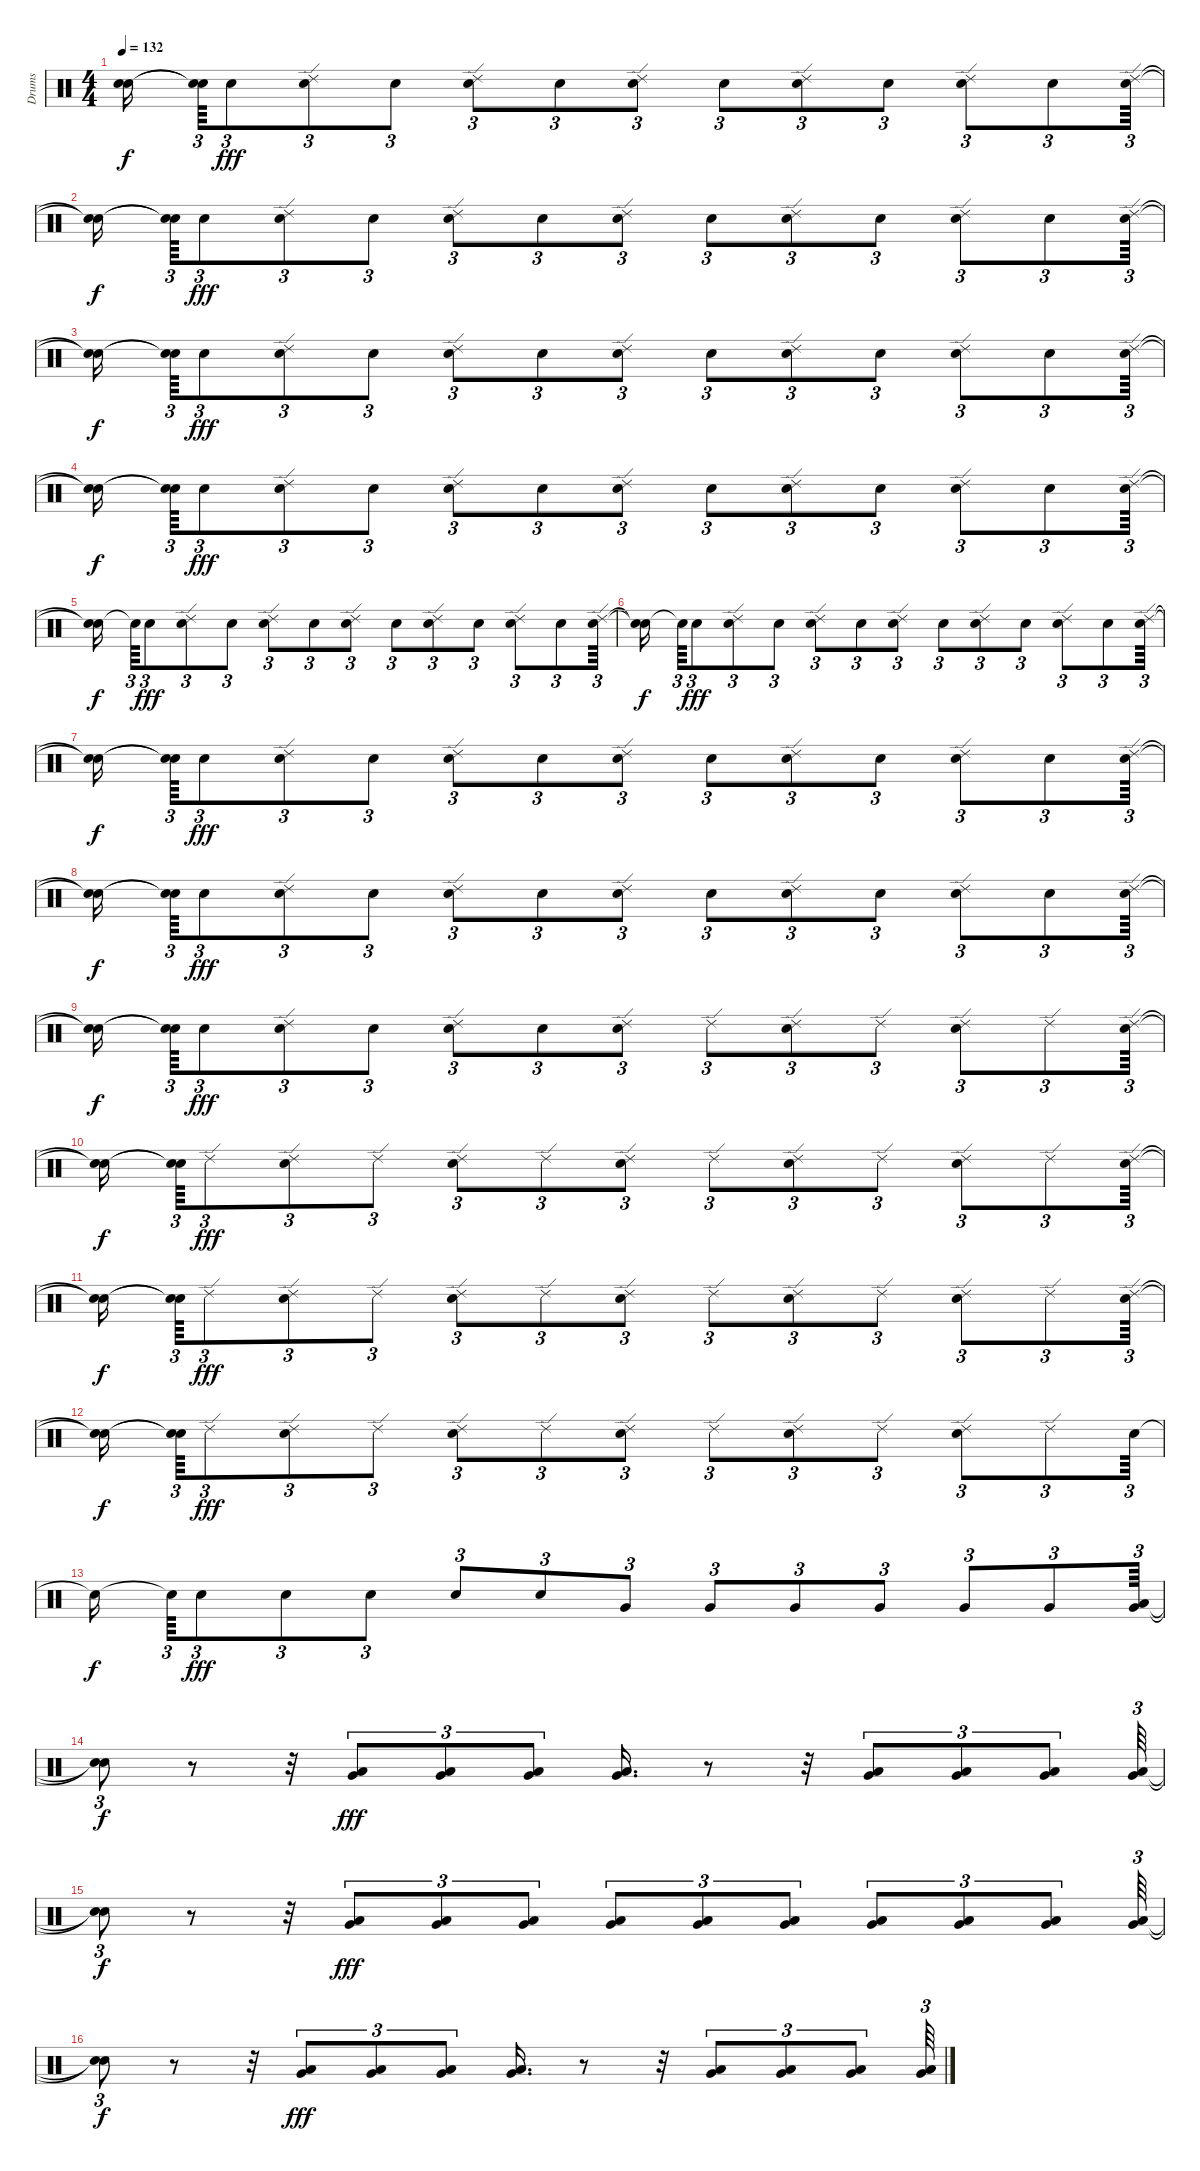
\track ("Drums" "Drums") {instrument percussion}
\staff {score}
\articulation defaults
\ts (4 4)
\tempo 132
\clef neutral
\ks c
("Snare (hit)"{t} "Snare (hit)"{t}).16{dy f} ("Snare (hit)"{t} "Snare (hit)"{t}).64{tu (3 2)} "Electric Snare (hit)".8{tu (3 2) dy fff} ("Ride (edge) 2" "Electric Snare (hit)").8{tu (3 2)} "Electric Snare (hit)".8{tu (3 2)} ("Ride (edge) 2" "Electric Snare (hit)").8{tu (3 2)} "Electric Snare (hit)".8{tu (3 2)} ("Ride (edge) 2" "Electric Snare (hit)").8{tu (3 2)} "Electric Snare (hit)".8{tu (3 2)} ("Ride (edge) 2" "Electric Snare (hit)").8{tu (3 2)} "Electric Snare (hit)".8{tu (3 2)} ("Electric Snare (hit)" "Ride (edge) 2").8{tu (3 2)} "Electric Snare (hit)".8{tu (3 2)} ("Electric Snare (hit)" "Ride (edge) 2").64{tu (3 2)} |
("Snare (hit)"{t} "Snare (hit)"{t}).16{dy f} ("Snare (hit)"{t} "Snare (hit)"{t}).64{tu (3 2)} "Electric Snare (hit)".8{tu (3 2) dy fff} ("Ride (edge) 2" "Electric Snare (hit)").8{tu (3 2)} "Electric Snare (hit)".8{tu (3 2)} ("Ride (edge) 2" "Electric Snare (hit)").8{tu (3 2)} "Electric Snare (hit)".8{tu (3 2)} ("Electric Snare (hit)" "Ride (edge) 2").8{tu (3 2)} "Electric Snare (hit)".8{tu (3 2)} ("Ride (edge) 2" "Electric Snare (hit)").8{tu (3 2)} "Electric Snare (hit)".8{tu (3 2)} ("Ride (edge) 2" "Electric Snare (hit)").8{tu (3 2)} "Electric Snare (hit)".8{tu (3 2)} ("Electric Snare (hit)" "Ride (edge) 2").64{tu (3 2)} |
("Snare (hit)"{t} "Snare (hit)"{t}).16{dy f} ("Snare (hit)"{t} "Snare (hit)"{t}).64{tu (3 2)} "Electric Snare (hit)".8{tu (3 2) dy fff} ("Electric Snare (hit)" "Ride (edge) 2").8{tu (3 2)} "Electric Snare (hit)".8{tu (3 2)} ("Ride (edge) 2" "Electric Snare (hit)").8{tu (3 2)} "Electric Snare (hit)".8{tu (3 2)} ("Ride (edge) 2" "Electric Snare (hit)").8{tu (3 2)} "Electric Snare (hit)".8{tu (3 2)} ("Ride (edge) 2" "Electric Snare (hit)").8{tu (3 2)} "Electric Snare (hit)".8{tu (3 2)} ("Ride (edge) 2" "Electric Snare (hit)").8{tu (3 2)} "Electric Snare (hit)".8{tu (3 2)} ("Ride (edge) 2" "Electric Snare (hit)").64{tu (3 2)} |
("Snare (hit)"{t} "Snare (hit)"{t}).16{dy f} ("Snare (hit)"{t} "Snare (hit)"{t}).64{tu (3 2)} "Electric Snare (hit)".8{tu (3 2) dy fff} ("Ride (edge) 2" "Electric Snare (hit)").8{tu (3 2)} "Electric Snare (hit)".8{tu (3 2)} ("Electric Snare (hit)" "Ride (edge) 2").8{tu (3 2)} "Electric Snare (hit)".8{tu (3 2)} ("Ride (edge) 2" "Electric Snare (hit)").8{tu (3 2)} "Electric Snare (hit)".8{tu (3 2)} ("Ride (edge) 2" "Electric Snare (hit)").8{tu (3 2)} "Electric Snare (hit)".8{tu (3 2)} ("Ride (edge) 2" "Electric Snare (hit)").8{tu (3 2)} "Electric Snare (hit)".8{tu (3 2)} ("Electric Snare (hit)" "Ride (edge) 2").64{tu (3 2)} |
("Snare (hit)"{t} "Snare (hit)"{t}).16{dy f} "Snare (hit)"{t}.64{tu (3 2)} "Electric Snare (hit)".8{tu (3 2) dy fff} ("Electric Snare (hit)" "Ride (edge) 2").8{tu (3 2)} "Electric Snare (hit)".8{tu (3 2)} ("Electric Snare (hit)" "Ride (edge) 2").8{tu (3 2)} "Electric Snare (hit)".8{tu (3 2)} ("Electric Snare (hit)" "Ride (edge) 2").8{tu (3 2)} "Electric Snare (hit)".8{tu (3 2)} ("Ride (edge) 2" "Electric Snare (hit)").8{tu (3 2)} "Electric Snare (hit)".8{tu (3 2)} ("Ride (edge) 2" "Electric Snare (hit)").8{tu (3 2)} "Electric Snare (hit)".8{tu (3 2)} ("Electric Snare (hit)" "Ride (edge) 2").64{tu (3 2)} |
("Snare (hit)"{t} "Snare (hit)"{t}).16{dy f} "Snare (hit)"{t}.64{tu (3 2)} "Electric Snare (hit)".8{tu (3 2) dy fff} ("Ride (edge) 2" "Electric Snare (hit)").8{tu (3 2)} "Electric Snare (hit)".8{tu (3 2)} ("Ride (edge) 2" "Electric Snare (hit)").8{tu (3 2)} "Electric Snare (hit)".8{tu (3 2)} ("Ride (edge) 2" "Electric Snare (hit)").8{tu (3 2)} "Electric Snare (hit)".8{tu (3 2)} ("Ride (edge) 2" "Electric Snare (hit)").8{tu (3 2)} "Electric Snare (hit)".8{tu (3 2)} ("Ride (edge) 2" "Electric Snare (hit)").8{tu (3 2)} "Electric Snare (hit)".8{tu (3 2)} ("Ride (edge) 2" "Electric Snare (hit)").64{tu (3 2)} |
("Snare (hit)"{t} "Snare (hit)"{t}).16{dy f} ("Snare (hit)"{t} "Snare (hit)"{t}).64{tu (3 2)} "Electric Snare (hit)".8{tu (3 2) dy fff} ("Electric Snare (hit)" "Ride (edge) 2").8{tu (3 2)} "Electric Snare (hit)".8{tu (3 2)} ("Ride (edge) 2" "Electric Snare (hit)").8{tu (3 2)} "Electric Snare (hit)".8{tu (3 2)} ("Ride (edge) 2" "Electric Snare (hit)").8{tu (3 2)} "Electric Snare (hit)".8{tu (3 2)} ("Ride (edge) 2" "Electric Snare (hit)").8{tu (3 2)} "Electric Snare (hit)".8{tu (3 2)} ("Ride (edge) 2" "Electric Snare (hit)").8{tu (3 2)} "Electric Snare (hit)".8{tu (3 2)} ("Ride (edge) 2" "Electric Snare (hit)").64{tu (3 2)} |
("Snare (hit)"{t} "Snare (hit)"{t}).16{dy f} ("Snare (hit)"{t} "Snare (hit)"{t}).64{tu (3 2)} "Electric Snare (hit)".8{tu (3 2) dy fff} ("Ride (edge) 2" "Electric Snare (hit)").8{tu (3 2)} "Electric Snare (hit)".8{tu (3 2)} ("Electric Snare (hit)" "Ride (edge) 2").8{tu (3 2)} "Electric Snare (hit)".8{tu (3 2)} ("Electric Snare (hit)" "Ride (edge) 2").8{tu (3 2)} "Electric Snare (hit)".8{tu (3 2)} ("Ride (edge) 2" "Electric Snare (hit)").8{tu (3 2)} "Electric Snare (hit)".8{tu (3 2)} ("Ride (edge) 2" "Electric Snare (hit)").8{tu (3 2)} "Electric Snare (hit)".8{tu (3 2)} ("Ride (edge) 2" "Electric Snare (hit)").64{tu (3 2)} |
("Snare (hit)"{t} "Snare (hit)"{t}).16{dy f} ("Snare (hit)"{t} "Snare (hit)"{t}).64{tu (3 2)} "Electric Snare (hit)".8{tu (3 2) dy fff} ("Electric Snare (hit)" "Ride (edge) 2").8{tu (3 2)} "Electric Snare (hit)".8{tu (3 2)} ("Electric Snare (hit)" "Ride (edge) 2").8{tu (3 2)} "Electric Snare (hit)".8{tu (3 2)} ("Ride (edge) 2" "Electric Snare (hit)").8{tu (3 2)} "Ride (edge) 2".8{tu (3 2)} ("Ride (edge) 2" "Electric Snare (hit)").8{tu (3 2)} "Ride (edge) 2".8{tu (3 2)} ("Ride (edge) 2" "Electric Snare (hit)").8{tu (3 2)} "Ride (edge) 2".8{tu (3 2)} ("Electric Snare (hit)" "Ride (edge) 2").64{tu (3 2)} |
("Snare (hit)"{t} "Snare (hit)"{t}).16{dy f} ("Snare (hit)"{t} "Snare (hit)"{t}).64{tu (3 2)} "Ride (edge) 2".8{tu (3 2) dy fff} ("Electric Snare (hit)" "Ride (edge) 2").8{tu (3 2)} "Ride (edge) 2".8{tu (3 2)} ("Electric Snare (hit)" "Ride (edge) 2").8{tu (3 2)} "Ride (edge) 2".8{tu (3 2)} ("Ride (edge) 2" "Electric Snare (hit)").8{tu (3 2)} "Ride (edge) 2".8{tu (3 2)} ("Electric Snare (hit)" "Ride (edge) 2").8{tu (3 2)} "Ride (edge) 2".8{tu (3 2)} ("Electric Snare (hit)" "Ride (edge) 2").8{tu (3 2)} "Ride (edge) 2".8{tu (3 2)} ("Electric Snare (hit)" "Ride (edge) 2").64{tu (3 2)} |
("Snare (hit)"{t} "Snare (hit)"{t}).16{dy f} ("Snare (hit)"{t} "Snare (hit)"{t}).64{tu (3 2)} "Ride (edge) 2".8{tu (3 2) dy fff} ("Ride (edge) 2" "Electric Snare (hit)").8{tu (3 2)} "Ride (edge) 2".8{tu (3 2)} ("Electric Snare (hit)" "Ride (edge) 2").8{tu (3 2)} "Ride (edge) 2".8{tu (3 2)} ("Electric Snare (hit)" "Ride (edge) 2").8{tu (3 2)} "Ride (edge) 2".8{tu (3 2)} ("Electric Snare (hit)" "Ride (edge) 2").8{tu (3 2)} "Ride (edge) 2".8{tu (3 2)} ("Electric Snare (hit)" "Ride (edge) 2").8{tu (3 2)} "Ride (edge) 2".8{tu (3 2)} ("Electric Snare (hit)" "Ride (edge) 2").64{tu (3 2)} |
("Snare (hit)"{t} "Snare (hit)"{t}).16{dy f} ("Snare (hit)"{t} "Snare (hit)"{t}).64{tu (3 2)} "Ride (edge) 2".8{tu (3 2) dy fff} ("Electric Snare (hit)" "Ride (edge) 2").8{tu (3 2)} "Ride (edge) 2".8{tu (3 2)} ("Electric Snare (hit)" "Ride (edge) 2").8{tu (3 2)} "Ride (edge) 2".8{tu (3 2)} ("Ride (edge) 2" "Electric Snare (hit)").8{tu (3 2)} "Ride (edge) 2".8{tu (3 2)} ("Electric Snare (hit)" "Ride (edge) 2").8{tu (3 2)} "Ride (edge) 2".8{tu (3 2)} ("Ride (edge) 2" "Electric Snare (hit)").8{tu (3 2)} "Ride (edge) 2".8{tu (3 2)} "Electric Snare (hit)".64{tu (3 2)} |
"Snare (hit)"{t}.16{dy f} "Snare (hit)"{t}.64{tu (3 2)} "Electric Snare (hit)".8{tu (3 2) dy fff} "Electric Snare (hit)".8{tu (3 2)} "Electric Snare (hit)".8{tu (3 2)} "Electric Snare (hit)".8{tu (3 2)} "Electric Snare (hit)".8{tu (3 2)} "Very Low Tom (hit)".8{tu (3 2)} "Very Low Tom (hit)".8{tu (3 2)} "Very Low Tom (hit)".8{tu (3 2)} "Very Low Tom (hit)".8{tu (3 2)} "Very Low Tom (hit)".8{tu (3 2)} "Very Low Tom (hit)".8{tu (3 2)} ("Very Low Tom (hit)" "Low Tom (hit)").64{tu (3 2)} |
("Snare (hit)"{t} "Snare (hit)"{t}).8{tu (3 2) dy f} r.8 r.32 ("Low Tom (hit)" "Very Low Tom (hit)").8{tu (3 2) dy fff} ("Very Low Tom (hit)" "Low Tom (hit)").8{tu (3 2)} ("Very Low Tom (hit)" "Low Tom (hit)").8{tu (3 2)} ("Very Low Tom (hit)" "Low Tom (hit)").16{d} r.8 r.32 ("Low Tom (hit)" "Very Low Tom (hit)").8{tu (3 2)} ("Very Low Tom (hit)" "Low Tom (hit)").8{tu (3 2)} ("Low Tom (hit)" "Very Low Tom (hit)").8{tu (3 2)} ("Very Low Tom (hit)" "Low Tom (hit)").64{tu (3 2)} |
("Snare (hit)"{t} "Snare (hit)"{t}).8{tu (3 2) dy f} r.8 r.32 ("Very Low Tom (hit)" "Low Tom (hit)").8{tu (3 2) dy fff} ("Very Low Tom (hit)" "Low Tom (hit)").8{tu (3 2)} ("Very Low Tom (hit)" "Low Tom (hit)").8{tu (3 2)} ("Very Low Tom (hit)" "Low Tom (hit)").8{tu (3 2)} ("Very Low Tom (hit)" "Low Tom (hit)").8{tu (3 2)} ("Very Low Tom (hit)" "Low Tom (hit)").8{tu (3 2)} ("Very Low Tom (hit)" "Low Tom (hit)").8{tu (3 2)} ("Very Low Tom (hit)" "Low Tom (hit)").8{tu (3 2)} ("Very Low Tom (hit)" "Low Tom (hit)").8{tu (3 2)} ("Very Low Tom (hit)" "Low Tom (hit)").64{tu (3 2)} |
("Snare (hit)"{t} "Snare (hit)"{t}).8{tu (3 2) dy f} r.8 r.32 ("Very Low Tom (hit)" "Low Tom (hit)").8{tu (3 2) dy fff} ("Very Low Tom (hit)" "Low Tom (hit)").8{tu (3 2)} ("Very Low Tom (hit)" "Low Tom (hit)").8{tu (3 2)} ("Very Low Tom (hit)" "Low Tom (hit)").16{d} r.8 r.32 ("Low Tom (hit)" "Very Low Tom (hit)").8{tu (3 2)} ("Low Tom (hit)" "Very Low Tom (hit)").8{tu (3 2)} ("Very Low Tom (hit)" "Low Tom (hit)").8{tu (3 2)} ("Very Low Tom (hit)" "Low Tom (hit)").64{tu (3 2)}
